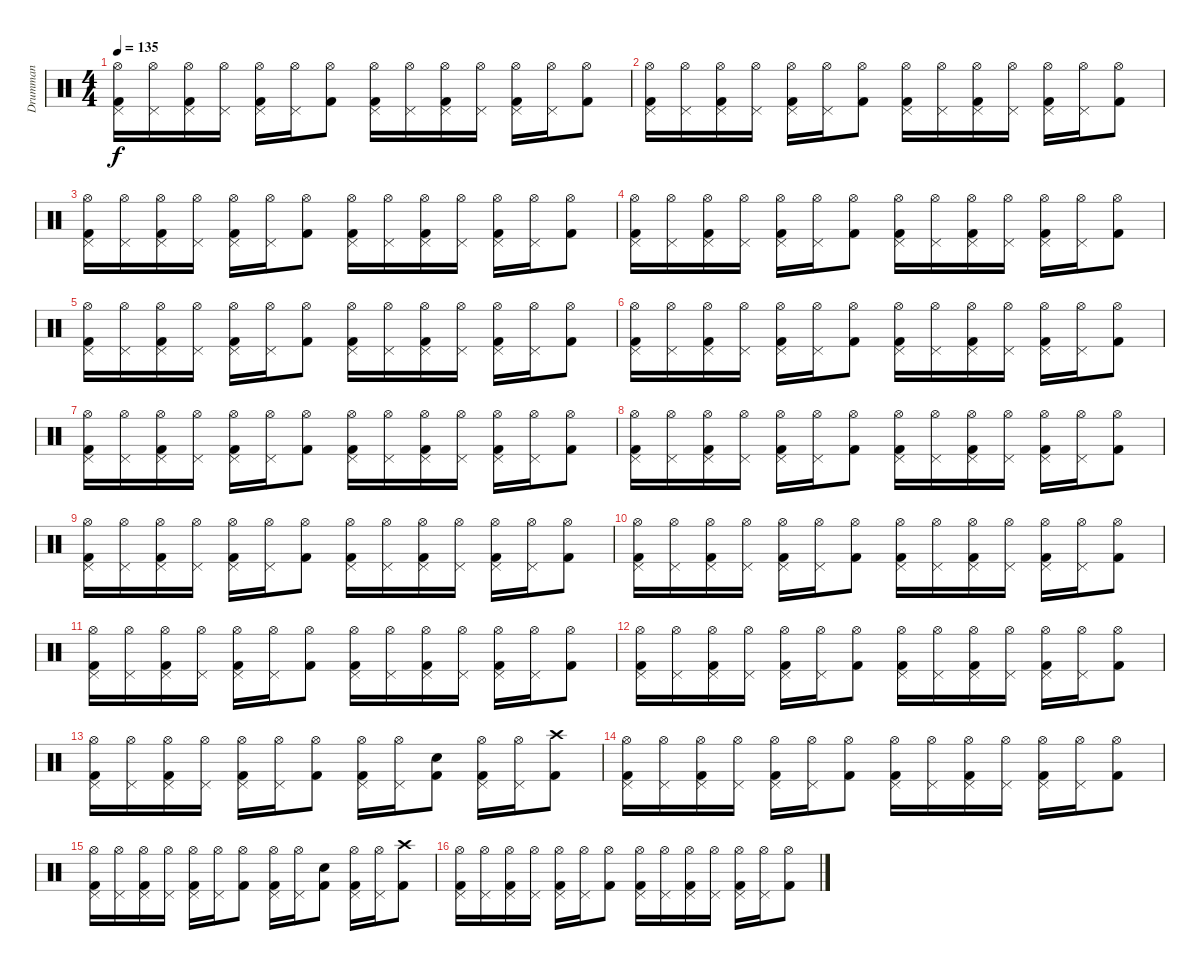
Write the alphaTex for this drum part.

\track ("Drumman" "Drumman") {instrument percussion}
\staff {score}
\articulation defaults
\ts (4 4)
\tempo 135
\clef neutral
\ks c
("Hi-Hat (open)" "Pedal Hi-Hat (hit)" "Kick (hit) 2").16{dy f} ("Hi-Hat (open)" "Pedal Hi-Hat (hit)").16 ("Hi-Hat (open)" "Pedal Hi-Hat (hit)" "Kick (hit) 2").16 ("Hi-Hat (open)" "Pedal Hi-Hat (hit)").16 ("Hi-Hat (open)" "Pedal Hi-Hat (hit)" "Kick (hit) 2").16 ("Hi-Hat (open)" "Pedal Hi-Hat (hit)").16 ("Hi-Hat (open)" "Kick (hit) 2").8 ("Hi-Hat (open)" "Pedal Hi-Hat (hit)" "Kick (hit) 2").16 ("Hi-Hat (open)" "Pedal Hi-Hat (hit)").16 ("Hi-Hat (open)" "Pedal Hi-Hat (hit)" "Kick (hit) 2").16 ("Hi-Hat (open)" "Pedal Hi-Hat (hit)").16 ("Hi-Hat (open)" "Pedal Hi-Hat (hit)" "Kick (hit) 2").16 ("Hi-Hat (open)" "Pedal Hi-Hat (hit)").16 ("Hi-Hat (open)" "Kick (hit) 2").8 |
("Hi-Hat (open)" "Pedal Hi-Hat (hit)" "Kick (hit) 2").16 ("Hi-Hat (open)" "Pedal Hi-Hat (hit)").16 ("Hi-Hat (open)" "Pedal Hi-Hat (hit)" "Kick (hit) 2").16 ("Hi-Hat (open)" "Pedal Hi-Hat (hit)").16 ("Hi-Hat (open)" "Pedal Hi-Hat (hit)" "Kick (hit) 2").16 ("Hi-Hat (open)" "Pedal Hi-Hat (hit)").16 ("Hi-Hat (open)" "Kick (hit) 2").8 ("Hi-Hat (open)" "Pedal Hi-Hat (hit)" "Kick (hit) 2").16 ("Hi-Hat (open)" "Pedal Hi-Hat (hit)").16 ("Hi-Hat (open)" "Pedal Hi-Hat (hit)" "Kick (hit) 2").16 ("Hi-Hat (open)" "Pedal Hi-Hat (hit)").16 ("Hi-Hat (open)" "Pedal Hi-Hat (hit)" "Kick (hit) 2").16 ("Hi-Hat (open)" "Pedal Hi-Hat (hit)").16 ("Hi-Hat (open)" "Kick (hit) 2").8 |
("Hi-Hat (open)" "Pedal Hi-Hat (hit)" "Kick (hit) 2").16 ("Hi-Hat (open)" "Pedal Hi-Hat (hit)").16 ("Hi-Hat (open)" "Pedal Hi-Hat (hit)" "Kick (hit) 2").16 ("Hi-Hat (open)" "Pedal Hi-Hat (hit)").16 ("Hi-Hat (open)" "Pedal Hi-Hat (hit)" "Kick (hit) 2").16 ("Hi-Hat (open)" "Pedal Hi-Hat (hit)").16 ("Hi-Hat (open)" "Kick (hit) 2").8 ("Hi-Hat (open)" "Pedal Hi-Hat (hit)" "Kick (hit) 2").16 ("Hi-Hat (open)" "Pedal Hi-Hat (hit)").16 ("Hi-Hat (open)" "Pedal Hi-Hat (hit)" "Kick (hit) 2").16 ("Hi-Hat (open)" "Pedal Hi-Hat (hit)").16 ("Hi-Hat (open)" "Pedal Hi-Hat (hit)" "Kick (hit) 2").16 ("Hi-Hat (open)" "Pedal Hi-Hat (hit)").16 ("Hi-Hat (open)" "Kick (hit) 2").8 |
("Hi-Hat (open)" "Pedal Hi-Hat (hit)" "Kick (hit) 2").16 ("Hi-Hat (open)" "Pedal Hi-Hat (hit)").16 ("Hi-Hat (open)" "Pedal Hi-Hat (hit)" "Kick (hit) 2").16 ("Hi-Hat (open)" "Pedal Hi-Hat (hit)").16 ("Hi-Hat (open)" "Pedal Hi-Hat (hit)" "Kick (hit) 2").16 ("Hi-Hat (open)" "Pedal Hi-Hat (hit)").16 ("Hi-Hat (open)" "Kick (hit) 2").8 ("Hi-Hat (open)" "Pedal Hi-Hat (hit)" "Kick (hit) 2").16 ("Hi-Hat (open)" "Pedal Hi-Hat (hit)").16 ("Hi-Hat (open)" "Pedal Hi-Hat (hit)" "Kick (hit) 2").16 ("Hi-Hat (open)" "Pedal Hi-Hat (hit)").16 ("Hi-Hat (open)" "Pedal Hi-Hat (hit)" "Kick (hit) 2").16 ("Hi-Hat (open)" "Pedal Hi-Hat (hit)").16 ("Hi-Hat (open)" "Kick (hit) 2").8 |
("Hi-Hat (open)" "Pedal Hi-Hat (hit)" "Kick (hit) 2").16 ("Hi-Hat (open)" "Pedal Hi-Hat (hit)").16 ("Hi-Hat (open)" "Pedal Hi-Hat (hit)" "Kick (hit) 2").16 ("Hi-Hat (open)" "Pedal Hi-Hat (hit)").16 ("Hi-Hat (open)" "Pedal Hi-Hat (hit)" "Kick (hit) 2").16 ("Hi-Hat (open)" "Pedal Hi-Hat (hit)").16 ("Hi-Hat (open)" "Kick (hit) 2").8 ("Hi-Hat (open)" "Pedal Hi-Hat (hit)" "Kick (hit) 2").16 ("Hi-Hat (open)" "Pedal Hi-Hat (hit)").16 ("Hi-Hat (open)" "Pedal Hi-Hat (hit)" "Kick (hit) 2").16 ("Hi-Hat (open)" "Pedal Hi-Hat (hit)").16 ("Hi-Hat (open)" "Pedal Hi-Hat (hit)" "Kick (hit) 2").16 ("Hi-Hat (open)" "Pedal Hi-Hat (hit)").16 ("Hi-Hat (open)" "Kick (hit) 2").8 |
("Hi-Hat (open)" "Pedal Hi-Hat (hit)" "Kick (hit) 2").16 ("Hi-Hat (open)" "Pedal Hi-Hat (hit)").16 ("Hi-Hat (open)" "Pedal Hi-Hat (hit)" "Kick (hit) 2").16 ("Hi-Hat (open)" "Pedal Hi-Hat (hit)").16 ("Hi-Hat (open)" "Pedal Hi-Hat (hit)" "Kick (hit) 2").16 ("Hi-Hat (open)" "Pedal Hi-Hat (hit)").16 ("Hi-Hat (open)" "Kick (hit) 2").8 ("Hi-Hat (open)" "Pedal Hi-Hat (hit)" "Kick (hit) 2").16 ("Hi-Hat (open)" "Pedal Hi-Hat (hit)").16 ("Hi-Hat (open)" "Pedal Hi-Hat (hit)" "Kick (hit) 2").16 ("Hi-Hat (open)" "Pedal Hi-Hat (hit)").16 ("Hi-Hat (open)" "Pedal Hi-Hat (hit)" "Kick (hit) 2").16 ("Hi-Hat (open)" "Pedal Hi-Hat (hit)").16 ("Hi-Hat (open)" "Kick (hit) 2").8 |
("Hi-Hat (open)" "Pedal Hi-Hat (hit)" "Kick (hit) 2").16 ("Hi-Hat (open)" "Pedal Hi-Hat (hit)").16 ("Hi-Hat (open)" "Pedal Hi-Hat (hit)" "Kick (hit) 2").16 ("Hi-Hat (open)" "Pedal Hi-Hat (hit)").16 ("Hi-Hat (open)" "Pedal Hi-Hat (hit)" "Kick (hit) 2").16 ("Hi-Hat (open)" "Pedal Hi-Hat (hit)").16 ("Hi-Hat (open)" "Kick (hit) 2").8 ("Hi-Hat (open)" "Pedal Hi-Hat (hit)" "Kick (hit) 2").16 ("Hi-Hat (open)" "Pedal Hi-Hat (hit)").16 ("Hi-Hat (open)" "Pedal Hi-Hat (hit)" "Kick (hit) 2").16 ("Hi-Hat (open)" "Pedal Hi-Hat (hit)").16 ("Hi-Hat (open)" "Pedal Hi-Hat (hit)" "Kick (hit) 2").16 ("Hi-Hat (open)" "Pedal Hi-Hat (hit)").16 ("Hi-Hat (open)" "Kick (hit) 2").8 |
("Hi-Hat (open)" "Pedal Hi-Hat (hit)" "Kick (hit) 2").16 ("Hi-Hat (open)" "Pedal Hi-Hat (hit)").16 ("Hi-Hat (open)" "Pedal Hi-Hat (hit)" "Kick (hit) 2").16 ("Hi-Hat (open)" "Pedal Hi-Hat (hit)").16 ("Hi-Hat (open)" "Pedal Hi-Hat (hit)" "Kick (hit) 2").16 ("Hi-Hat (open)" "Pedal Hi-Hat (hit)").16 ("Hi-Hat (open)" "Kick (hit) 2").8 ("Hi-Hat (open)" "Pedal Hi-Hat (hit)" "Kick (hit) 2").16 ("Hi-Hat (open)" "Pedal Hi-Hat (hit)").16 ("Hi-Hat (open)" "Pedal Hi-Hat (hit)" "Kick (hit) 2").16 ("Hi-Hat (open)" "Pedal Hi-Hat (hit)").16 ("Hi-Hat (open)" "Pedal Hi-Hat (hit)" "Kick (hit) 2").16 ("Hi-Hat (open)" "Pedal Hi-Hat (hit)").16 ("Hi-Hat (open)" "Kick (hit) 2").8 |
("Hi-Hat (open)" "Pedal Hi-Hat (hit)" "Kick (hit) 2").16 ("Hi-Hat (open)" "Pedal Hi-Hat (hit)").16 ("Hi-Hat (open)" "Pedal Hi-Hat (hit)" "Kick (hit) 2").16 ("Hi-Hat (open)" "Pedal Hi-Hat (hit)").16 ("Hi-Hat (open)" "Pedal Hi-Hat (hit)" "Kick (hit) 2").16 ("Hi-Hat (open)" "Pedal Hi-Hat (hit)").16 ("Hi-Hat (open)" "Kick (hit) 2").8 ("Hi-Hat (open)" "Pedal Hi-Hat (hit)" "Kick (hit) 2").16 ("Hi-Hat (open)" "Pedal Hi-Hat (hit)").16 ("Hi-Hat (open)" "Pedal Hi-Hat (hit)" "Kick (hit) 2").16 ("Hi-Hat (open)" "Pedal Hi-Hat (hit)").16 ("Hi-Hat (open)" "Pedal Hi-Hat (hit)" "Kick (hit) 2").16 ("Hi-Hat (open)" "Pedal Hi-Hat (hit)").16 ("Hi-Hat (open)" "Kick (hit) 2").8 |
("Hi-Hat (open)" "Pedal Hi-Hat (hit)" "Kick (hit) 2").16 ("Hi-Hat (open)" "Pedal Hi-Hat (hit)").16 ("Hi-Hat (open)" "Pedal Hi-Hat (hit)" "Kick (hit) 2").16 ("Hi-Hat (open)" "Pedal Hi-Hat (hit)").16 ("Hi-Hat (open)" "Pedal Hi-Hat (hit)" "Kick (hit) 2").16 ("Hi-Hat (open)" "Pedal Hi-Hat (hit)").16 ("Hi-Hat (open)" "Kick (hit) 2").8 ("Hi-Hat (open)" "Pedal Hi-Hat (hit)" "Kick (hit) 2").16 ("Hi-Hat (open)" "Pedal Hi-Hat (hit)").16 ("Hi-Hat (open)" "Pedal Hi-Hat (hit)" "Kick (hit) 2").16 ("Hi-Hat (open)" "Pedal Hi-Hat (hit)").16 ("Hi-Hat (open)" "Pedal Hi-Hat (hit)" "Kick (hit) 2").16 ("Hi-Hat (open)" "Pedal Hi-Hat (hit)").16 ("Hi-Hat (open)" "Kick (hit) 2").8 |
("Hi-Hat (open)" "Pedal Hi-Hat (hit)" "Kick (hit) 2").16 ("Hi-Hat (open)" "Pedal Hi-Hat (hit)").16 ("Hi-Hat (open)" "Pedal Hi-Hat (hit)" "Kick (hit) 2").16 ("Hi-Hat (open)" "Pedal Hi-Hat (hit)").16 ("Hi-Hat (open)" "Pedal Hi-Hat (hit)" "Kick (hit) 2").16 ("Hi-Hat (open)" "Pedal Hi-Hat (hit)").16 ("Hi-Hat (open)" "Kick (hit) 2").8 ("Hi-Hat (open)" "Pedal Hi-Hat (hit)" "Kick (hit) 2").16 ("Hi-Hat (open)" "Pedal Hi-Hat (hit)").16 ("Hi-Hat (open)" "Pedal Hi-Hat (hit)" "Kick (hit) 2").16 ("Hi-Hat (open)" "Pedal Hi-Hat (hit)").16 ("Hi-Hat (open)" "Pedal Hi-Hat (hit)" "Kick (hit) 2").16 ("Hi-Hat (open)" "Pedal Hi-Hat (hit)").16 ("Hi-Hat (open)" "Kick (hit) 2").8 |
("Hi-Hat (open)" "Pedal Hi-Hat (hit)" "Kick (hit) 2").16 ("Hi-Hat (open)" "Pedal Hi-Hat (hit)").16 ("Hi-Hat (open)" "Pedal Hi-Hat (hit)" "Kick (hit) 2").16 ("Hi-Hat (open)" "Pedal Hi-Hat (hit)").16 ("Hi-Hat (open)" "Pedal Hi-Hat (hit)" "Kick (hit) 2").16 ("Hi-Hat (open)" "Pedal Hi-Hat (hit)").16 ("Hi-Hat (open)" "Kick (hit) 2").8 ("Hi-Hat (open)" "Pedal Hi-Hat (hit)" "Kick (hit) 2").16 ("Hi-Hat (open)" "Pedal Hi-Hat (hit)").16 ("Hi-Hat (open)" "Pedal Hi-Hat (hit)" "Kick (hit) 2").16 ("Hi-Hat (open)" "Pedal Hi-Hat (hit)").16 ("Hi-Hat (open)" "Pedal Hi-Hat (hit)" "Kick (hit) 2").16 ("Hi-Hat (open)" "Pedal Hi-Hat (hit)").16 ("Hi-Hat (open)" "Kick (hit) 2").8 |
("Hi-Hat (open)" "Pedal Hi-Hat (hit)" "Kick (hit) 2").16 ("Hi-Hat (open)" "Pedal Hi-Hat (hit)").16 ("Hi-Hat (open)" "Pedal Hi-Hat (hit)" "Kick (hit) 2").16 ("Hi-Hat (open)" "Pedal Hi-Hat (hit)").16 ("Hi-Hat (open)" "Pedal Hi-Hat (hit)" "Kick (hit) 2").16 ("Hi-Hat (open)" "Pedal Hi-Hat (hit)").16 ("Hi-Hat (open)" "Kick (hit) 2").8 ("Hi-Hat (open)" "Pedal Hi-Hat (hit)" "Kick (hit) 2").16 ("Hi-Hat (open)" "Pedal Hi-Hat (hit)").16 ("Snare (hit) 2" "Kick (hit) 2").8 ("Hi-Hat (open)" "Pedal Hi-Hat (hit)" "Kick (hit) 2").16 ("Hi-Hat (open)" "Pedal Hi-Hat (hit)").16 ("Crash high (hit)" "Kick (hit) 2").8 |
("Hi-Hat (open)" "Pedal Hi-Hat (hit)" "Kick (hit) 2").16 ("Hi-Hat (open)" "Pedal Hi-Hat (hit)").16 ("Hi-Hat (open)" "Pedal Hi-Hat (hit)" "Kick (hit) 2").16 ("Hi-Hat (open)" "Pedal Hi-Hat (hit)").16 ("Hi-Hat (open)" "Pedal Hi-Hat (hit)" "Kick (hit) 2").16 ("Hi-Hat (open)" "Pedal Hi-Hat (hit)").16 ("Hi-Hat (open)" "Kick (hit) 2").8 ("Hi-Hat (open)" "Pedal Hi-Hat (hit)" "Kick (hit) 2").16 ("Hi-Hat (open)" "Pedal Hi-Hat (hit)").16 ("Hi-Hat (open)" "Pedal Hi-Hat (hit)" "Kick (hit) 2").16 ("Hi-Hat (open)" "Pedal Hi-Hat (hit)").16 ("Hi-Hat (open)" "Pedal Hi-Hat (hit)" "Kick (hit) 2").16 ("Hi-Hat (open)" "Pedal Hi-Hat (hit)").16 ("Hi-Hat (open)" "Kick (hit) 2").8 |
("Hi-Hat (open)" "Pedal Hi-Hat (hit)" "Kick (hit) 2").16 ("Hi-Hat (open)" "Pedal Hi-Hat (hit)").16 ("Hi-Hat (open)" "Pedal Hi-Hat (hit)" "Kick (hit) 2").16 ("Hi-Hat (open)" "Pedal Hi-Hat (hit)").16 ("Hi-Hat (open)" "Pedal Hi-Hat (hit)" "Kick (hit) 2").16 ("Hi-Hat (open)" "Pedal Hi-Hat (hit)").16 ("Hi-Hat (open)" "Kick (hit) 2").8 ("Hi-Hat (open)" "Pedal Hi-Hat (hit)" "Kick (hit) 2").16 ("Hi-Hat (open)" "Pedal Hi-Hat (hit)").16 ("Snare (hit) 2" "Kick (hit) 2").8 ("Hi-Hat (open)" "Pedal Hi-Hat (hit)" "Kick (hit) 2").16 ("Hi-Hat (open)" "Pedal Hi-Hat (hit)").16 ("Crash high (hit)" "Kick (hit) 2").8 |
("Hi-Hat (open)" "Pedal Hi-Hat (hit)" "Kick (hit) 2").16 ("Hi-Hat (open)" "Pedal Hi-Hat (hit)").16 ("Hi-Hat (open)" "Pedal Hi-Hat (hit)" "Kick (hit) 2").16 ("Hi-Hat (open)" "Pedal Hi-Hat (hit)").16 ("Hi-Hat (open)" "Pedal Hi-Hat (hit)" "Kick (hit) 2").16 ("Hi-Hat (open)" "Pedal Hi-Hat (hit)").16 ("Hi-Hat (open)" "Kick (hit) 2").8 ("Hi-Hat (open)" "Pedal Hi-Hat (hit)" "Kick (hit) 2").16 ("Hi-Hat (open)" "Pedal Hi-Hat (hit)").16 ("Hi-Hat (open)" "Pedal Hi-Hat (hit)" "Kick (hit) 2").16 ("Hi-Hat (open)" "Pedal Hi-Hat (hit)").16 ("Hi-Hat (open)" "Pedal Hi-Hat (hit)" "Kick (hit) 2").16 ("Hi-Hat (open)" "Pedal Hi-Hat (hit)").16 ("Hi-Hat (open)" "Kick (hit) 2").8
